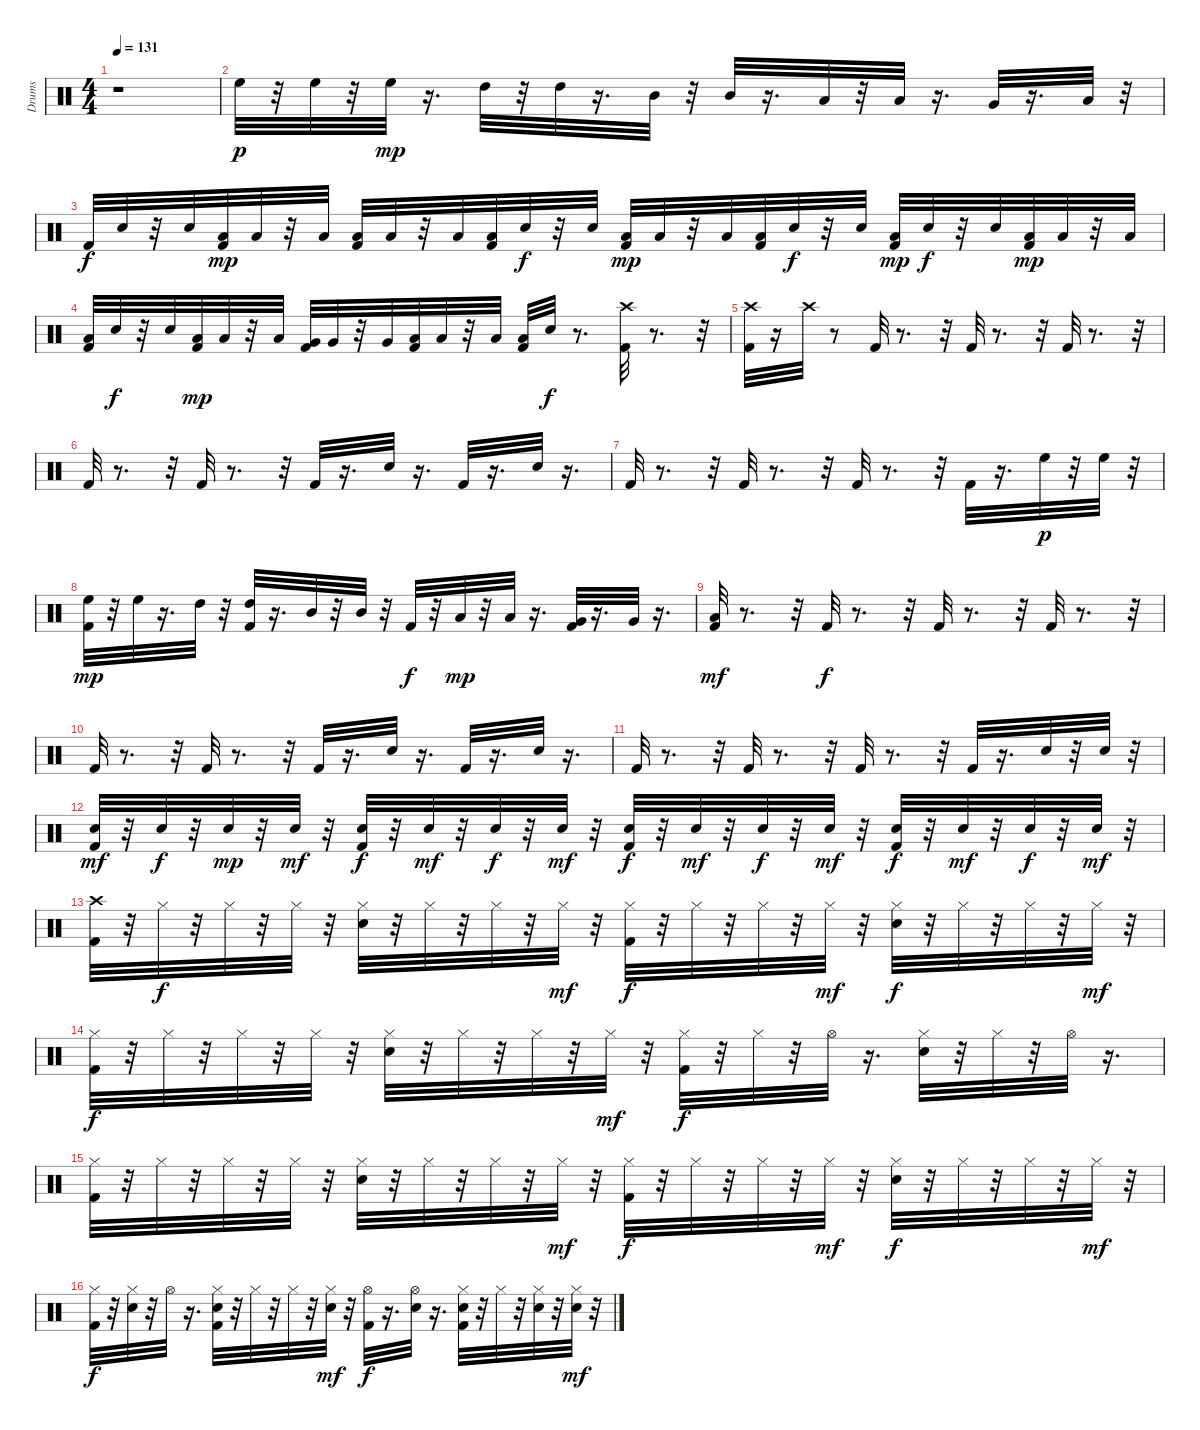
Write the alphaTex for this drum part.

\track ("Drums" "Drums") {instrument percussion}
\staff {score}
\articulation defaults
\ts (4 4)
\tempo 131
\clef neutral
\ks c
r.1{dy p} |
"High Floor Tom (hit)".32 r.32 "High Floor Tom (hit)".32 r.32 "High Floor Tom (hit)".32{dy mp} r.16{d} "High Tom (hit)".32 r.32 "High Tom (hit)".32 r.16{d} "Mid Tom (hit)".32 r.32 "Mid Tom (hit)".32 r.16{d} "Low Tom (hit)".32 r.32 "Low Tom (hit)".32 r.16{d} "Very Low Tom (hit)".32 r.16{d} "Low Floor Tom (hit)".32 r.32 |
"Kick (hit) 2".32{dy f} "Snare (hit) 2".32 r.32 "Snare (hit) 2".32 ("Kick (hit) 2" "Low Tom (hit)").32{dy mp} "Low Tom (hit)".32 r.32 "Low Tom (hit)".32 ("Kick (hit) 2" "Low Tom (hit)").32 "Low Tom (hit)".32 r.32 "Low Tom (hit)".32 ("Kick (hit) 2" "Low Tom (hit)").32 "Snare (hit) 2".32{dy f} r.32 "Snare (hit) 2".32 ("Low Tom (hit)" "Kick (hit) 2").32{dy mp} "Low Tom (hit)".32 r.32 "Low Tom (hit)".32 ("Low Tom (hit)" "Kick (hit) 2").32 "Snare (hit) 2".32{dy f} r.32 "Snare (hit) 2".32 ("Low Tom (hit)" "Kick (hit) 2").32{dy mp} "Snare (hit) 2".32{dy f} r.32 "Snare (hit) 2".32 ("Kick (hit) 2" "Low Tom (hit)").32{dy mp} "Low Tom (hit)".32 r.32 "Low Tom (hit)".32 |
("Kick (hit) 2" "Low Tom (hit)").32 "Snare (hit) 2".32{dy f} r.32 "Snare (hit) 2".32 ("Kick (hit) 2" "Low Tom (hit)").32{dy mp} "Low Tom (hit)".32 r.32 "Low Tom (hit)".32 ("Kick (hit) 2" "Very Low Tom (hit)").32 "Very Low Tom (hit)".32 r.32 "Very Low Tom (hit)".32 ("Kick (hit) 2" "Low Floor Tom (hit)").32 "Low Floor Tom (hit)".32 r.32 "Low Floor Tom (hit)".32 ("Low Floor Tom (hit)" "Kick (hit) 2").32 "Snare (hit) 2".32{dy f} r.8{d} ("Kick (hit) 2" "Crash high (hit)").32 r.8{d} r.32 |
("Crash high (hit)" "Kick (hit) 2").32 r.16 "Crash high (hit)".32 r.8 "Kick (hit) 2".32 r.8{d} r.32 "Kick (hit) 2".32 r.8{d} r.32 "Kick (hit) 2".32 r.8{d} r.32 |
"Kick (hit) 2".32 r.8{d} r.32 "Kick (hit) 2".32 r.8{d} r.32 "Kick (hit) 2".32 r.16{d} "Snare (hit) 2".32 r.16{d} "Kick (hit) 2".32 r.16{d} "Snare (hit) 2".32 r.16{d} |
"Kick (hit) 2".32 r.8{d} r.32 "Kick (hit) 2".32 r.8{d} r.32 "Kick (hit) 2".32 r.8{d} r.32 "Kick (hit) 2".32 r.16{d} "High Floor Tom (hit)".32{dy p} r.32 "High Floor Tom (hit)".32 r.32 |
("Kick (hit) 2" "High Floor Tom (hit)").32{dy mp} r.32 "High Floor Tom (hit)".32 r.16{d} "High Tom (hit)".32 r.32 ("High Tom (hit)" "Kick (hit) 2").32 r.16{d} "Mid Tom (hit)".32 r.32 "Mid Tom (hit)".32 r.32 "Kick (hit) 2".32{dy f} r.32 "Low Tom (hit)".32{dy mp} r.32 "Low Tom (hit)".32 r.16{d} ("Kick (hit) 2" "Very Low Tom (hit)").32 r.16{d} "Very Low Tom (hit)".32 r.16{d} |
("Low Floor Tom (hit)" "Kick (hit) 2").32{dy mf} r.8{d} r.32 "Kick (hit) 2".32{dy f} r.8{d} r.32 "Kick (hit) 2".32 r.8{d} r.32 "Kick (hit) 2".32 r.8{d} r.32 |
"Kick (hit) 2".32 r.8{d} r.32 "Kick (hit) 2".32 r.8{d} r.32 "Kick (hit) 2".32 r.16{d} "Snare (hit) 2".32 r.16{d} "Kick (hit) 2".32 r.16{d} "Snare (hit) 2".32 r.16{d} |
"Kick (hit) 2".32 r.8{d} r.32 "Kick (hit) 2".32 r.8{d} r.32 "Kick (hit) 2".32 r.8{d} r.32 "Kick (hit) 2".32 r.16{d} "Snare (hit) 2".32 r.32 "Snare (hit) 2".32 r.32 |
("Snare (hit) 2" "Kick (hit) 2").32{dy mf} r.32 "Snare (hit) 2".32{dy f} r.32 "Snare (hit) 2".32{dy mp} r.32 "Snare (hit) 2".32{dy mf} r.32 ("Snare (hit) 2" "Kick (hit) 2").32{dy f} r.32 "Snare (hit) 2".32{dy mf} r.32 "Snare (hit) 2".32{dy f} r.32 "Snare (hit) 2".32{dy mf} r.32 ("Kick (hit) 2" "Snare (hit) 2").32{dy f} r.32 "Snare (hit) 2".32{dy mf} r.32 "Snare (hit) 2".32{dy f} r.32 "Snare (hit) 2".32{dy mf} r.32 ("Kick (hit) 2" "Snare (hit) 2").32{dy f} r.32 "Snare (hit) 2".32{dy mf} r.32 "Snare (hit) 2".32{dy f} r.32 "Snare (hit) 2".32{dy mf} r.32 |
("Crash high (hit)" "Kick (hit) 2").32 r.32 "Hi-Hat (closed)".32{dy f} r.32 "Hi-Hat (closed)".32 r.32 "Hi-Hat (closed)".32 r.32 ("Hi-Hat (closed)" "Snare (hit) 2").32 r.32 "Hi-Hat (closed)".32 r.32 "Hi-Hat (closed)".32 r.32 "Hi-Hat (closed)".32{dy mf} r.32 ("Hi-Hat (closed)" "Kick (hit) 2").32{dy f} r.32 "Hi-Hat (closed)".32 r.32 "Hi-Hat (closed)".32 r.32 "Hi-Hat (closed)".32{dy mf} r.32 ("Hi-Hat (closed)" "Snare (hit) 2").32{dy f} r.32 "Hi-Hat (closed)".32 r.32 "Hi-Hat (closed)".32 r.32 "Hi-Hat (closed)".32{dy mf} r.32 |
("Kick (hit) 2" "Hi-Hat (closed)").32{dy f} r.32 "Hi-Hat (closed)".32 r.32 "Hi-Hat (closed)".32 r.32 "Hi-Hat (closed)".32 r.32 ("Snare (hit) 2" "Hi-Hat (closed)").32 r.32 "Hi-Hat (closed)".32 r.32 "Hi-Hat (closed)".32 r.32 "Hi-Hat (closed)".32{dy mf} r.32 ("Kick (hit) 2" "Hi-Hat (closed)").32{dy f} r.32 "Hi-Hat (closed)".32 r.32 "Hi-Hat (open)".32 r.16{d} ("Snare (hit) 2" "Hi-Hat (closed)").32 r.32 "Hi-Hat (closed)".32 r.32 "Hi-Hat (open)".32 r.16{d} |
("Kick (hit) 2" "Hi-Hat (closed)").32 r.32 "Hi-Hat (closed)".32 r.32 "Hi-Hat (closed)".32 r.32 "Hi-Hat (closed)".32 r.32 ("Hi-Hat (closed)" "Snare (hit) 2").32 r.32 "Hi-Hat (closed)".32 r.32 "Hi-Hat (closed)".32 r.32 "Hi-Hat (closed)".32{dy mf} r.32 ("Hi-Hat (closed)" "Kick (hit) 2").32{dy f} r.32 "Hi-Hat (closed)".32 r.32 "Hi-Hat (closed)".32 r.32 "Hi-Hat (closed)".32{dy mf} r.32 ("Hi-Hat (closed)" "Snare (hit) 2").32{dy f} r.32 "Hi-Hat (closed)".32 r.32 "Hi-Hat (closed)".32 r.32 "Hi-Hat (closed)".32{dy mf} r.32 |
("Kick (hit) 2" "Hi-Hat (closed)").32{dy f} r.32 ("Snare (hit) 2" "Hi-Hat (closed)").32 r.32 "Hi-Hat (open)".32 r.16{d} ("Kick (hit) 2" "Snare (hit) 2" "Hi-Hat (closed)").32 r.32 "Hi-Hat (closed)".32 r.32 "Hi-Hat (closed)".32 r.32 ("Snare (hit) 2" "Hi-Hat (closed)").32{dy mf} r.32 ("Hi-Hat (open)" "Kick (hit) 2").32{dy f} r.16{d} ("Snare (hit) 2" "Hi-Hat (open)").32 r.16{d} ("Snare (hit) 2" "Hi-Hat (closed)" "Kick (hit) 2").32 r.32 "Hi-Hat (closed)".32 r.32 ("Snare (hit) 2" "Hi-Hat (closed)").32 r.32 ("Snare (hit) 2" "Hi-Hat (closed)").32{dy mf} r.32
